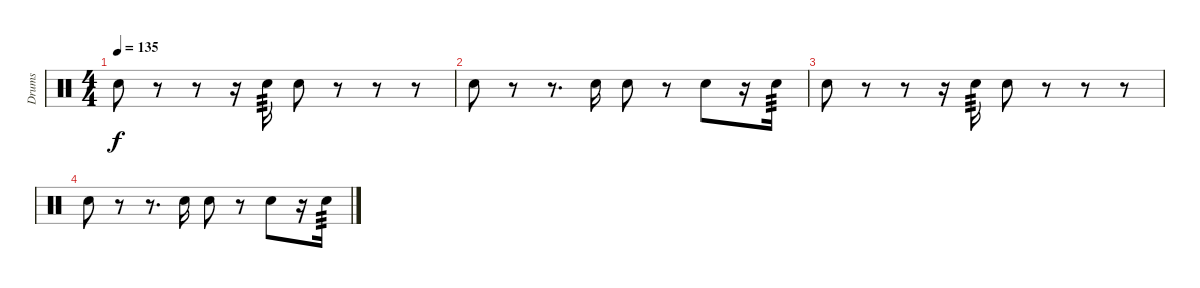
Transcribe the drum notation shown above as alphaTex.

\track ("Drums" "Drums") {instrument percussion}
\staff {score}
\articulation defaults
\ts (4 4)
\tempo 135
\clef neutral
\ks c "Electric Snare (hit)".8{dy f}
r.8 r.8 r.16 "Electric Snare (hit)".16{tp 3} "Electric Snare (hit)".8 r.8 r.8 r.8 |
"Electric Snare (hit)".8 r.8 r.8{d} "Electric Snare (hit)".16 "Electric Snare (hit)".8 r.8 "Electric Snare (hit)".8 r.16 "Electric Snare (hit)".16{tp 3} |
"Electric Snare (hit)".8 r.8 r.8 r.16 "Electric Snare (hit)".16{tp 3} "Electric Snare (hit)".8 r.8 r.8 r.8 |
"Electric Snare (hit)".8 r.8 r.8{d} "Electric Snare (hit)".16 "Electric Snare (hit)".8 r.8 "Electric Snare (hit)".8 r.16 "Electric Snare (hit)".16{tp 3}
